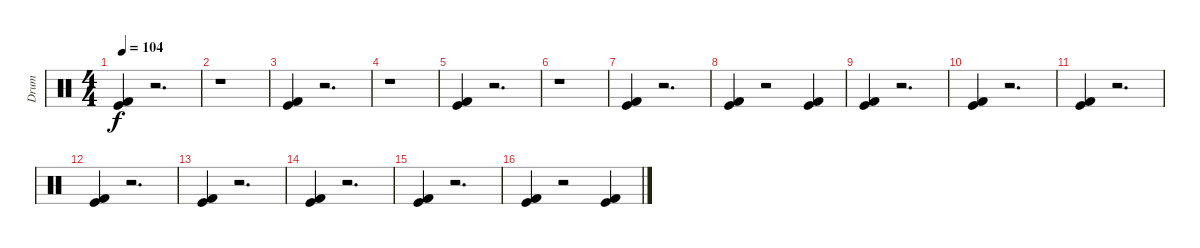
\track ("Drum" "Drum") {instrument percussion}
\staff {score}
\articulation defaults
\ts (4 4)
\tempo 104
\clef neutral
\ks c
("Kick (hit) 2" "Kick (hit)").4{dy f} r.2{d} |
r.1 |
("Kick (hit) 2" "Kick (hit)").4 r.2{d} |
r.1 |
("Kick (hit) 2" "Kick (hit)").4 r.2{d} |
r.1 |
("Kick (hit) 2" "Kick (hit)").4 r.2{d} |
("Kick (hit) 2" "Kick (hit)").4 r.2 ("Kick (hit) 2" "Kick (hit)").4 |
("Kick (hit) 2" "Kick (hit)").4 r.2{d} |
("Kick (hit) 2" "Kick (hit)").4 r.2{d} |
("Kick (hit) 2" "Kick (hit)").4 r.2{d} |
("Kick (hit) 2" "Kick (hit)").4 r.2{d} |
("Kick (hit) 2" "Kick (hit)").4 r.2{d} |
("Kick (hit) 2" "Kick (hit)").4 r.2{d} |
("Kick (hit) 2" "Kick (hit)").4 r.2{d} |
("Kick (hit) 2" "Kick (hit)").4 r.2 ("Kick (hit) 2" "Kick (hit)").4
